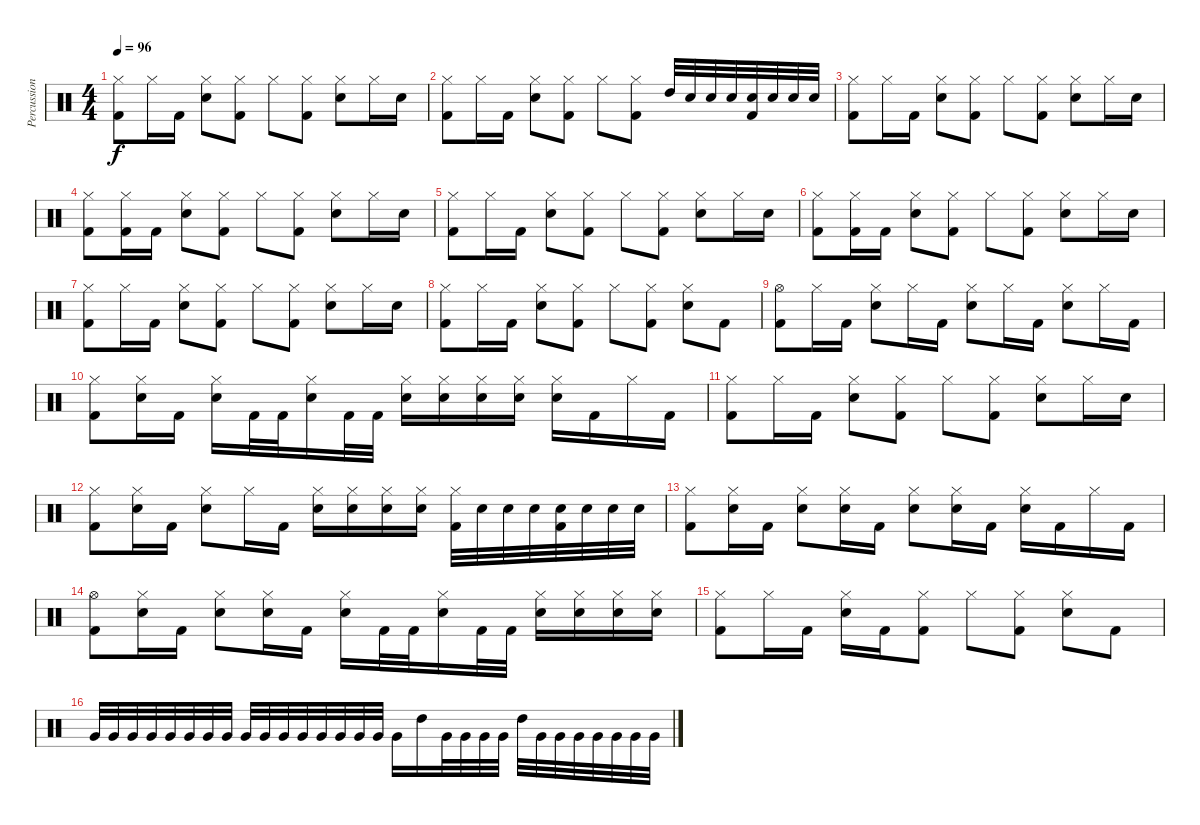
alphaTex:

\track ("Percussions" "Percussion") {instrument percussion}
\staff {score}
\articulation defaults
\ts (4 4)
\tempo 96
\clef neutral
\ks c
("Kick (hit) 2" "Hi-Hat (closed)").8{dy f} "Hi-Hat (closed)".16 "Kick (hit) 2".16 ("Hi-Hat (closed)" "Snare (hit) 2").8 ("Kick (hit) 2" "Hi-Hat (closed)").8 "Hi-Hat (closed)".8 ("Hi-Hat (closed)" "Kick (hit) 2").8 ("Hi-Hat (closed)" "Snare (hit) 2").8 "Hi-Hat (closed)".16 "Snare (hit) 2".16 |
("Hi-Hat (closed)" "Kick (hit) 2").8 "Hi-Hat (closed)".16 "Kick (hit) 2".16 ("Hi-Hat (closed)" "Snare (hit) 2").8 ("Hi-Hat (closed)" "Kick (hit) 2").8 "Hi-Hat (closed)".8 ("Hi-Hat (closed)" "Kick (hit) 2").8 "High Tom (hit)".32 "Snare (hit) 2".32 "Snare (hit) 2".32 "Snare (hit) 2".32 ("Snare (hit) 2" "Kick (hit) 2").32 "Snare (hit) 2".32 "Snare (hit) 2".32 "Snare (hit) 2".32 |
("Kick (hit) 2" "Hi-Hat (closed)").8 "Hi-Hat (closed)".16 "Kick (hit) 2".16 ("Hi-Hat (closed)" "Snare (hit) 2").8 ("Kick (hit) 2" "Hi-Hat (closed)").8 "Hi-Hat (closed)".8 ("Hi-Hat (closed)" "Kick (hit) 2").8 ("Hi-Hat (closed)" "Snare (hit) 2").8 "Hi-Hat (closed)".16 "Snare (hit) 2".16 |
("Kick (hit) 2" "Hi-Hat (closed)").8 ("Hi-Hat (closed)" "Kick (hit) 2").16 "Kick (hit) 2".16 ("Hi-Hat (closed)" "Snare (hit) 2").8 ("Kick (hit) 2" "Hi-Hat (closed)").8 "Hi-Hat (closed)".8 ("Hi-Hat (closed)" "Kick (hit) 2").8 ("Hi-Hat (closed)" "Snare (hit) 2").8 "Hi-Hat (closed)".16 "Snare (hit) 2".16 |
("Kick (hit) 2" "Hi-Hat (closed)").8 "Hi-Hat (closed)".16 "Kick (hit) 2".16 ("Hi-Hat (closed)" "Snare (hit) 2").8 ("Kick (hit) 2" "Hi-Hat (closed)").8 "Hi-Hat (closed)".8 ("Hi-Hat (closed)" "Kick (hit) 2").8 ("Hi-Hat (closed)" "Snare (hit) 2").8 "Hi-Hat (closed)".16 "Snare (hit) 2".16 |
("Kick (hit) 2" "Hi-Hat (closed)").8 ("Hi-Hat (closed)" "Kick (hit) 2").16 "Kick (hit) 2".16 ("Hi-Hat (closed)" "Snare (hit) 2").8 ("Kick (hit) 2" "Hi-Hat (closed)").8 "Hi-Hat (closed)".8 ("Hi-Hat (closed)" "Kick (hit) 2").8 ("Hi-Hat (closed)" "Snare (hit) 2").8 "Hi-Hat (closed)".16 "Snare (hit) 2".16 |
("Kick (hit) 2" "Hi-Hat (closed)").8 "Hi-Hat (closed)".16 "Kick (hit) 2".16 ("Hi-Hat (closed)" "Snare (hit) 2").8 ("Kick (hit) 2" "Hi-Hat (closed)").8 "Hi-Hat (closed)".8 ("Hi-Hat (closed)" "Kick (hit) 2").8 ("Hi-Hat (closed)" "Snare (hit) 2").8 "Hi-Hat (closed)".16 "Snare (hit) 2".16 |
("Hi-Hat (closed)" "Kick (hit) 2").8 "Hi-Hat (closed)".16 "Kick (hit) 2".16 ("Hi-Hat (closed)" "Snare (hit) 2").8 ("Hi-Hat (closed)" "Kick (hit) 2").8 "Hi-Hat (closed)".8 ("Hi-Hat (closed)" "Kick (hit) 2").8 ("Hi-Hat (closed)" "Snare (hit) 2").8 "Kick (hit) 2".8 |
("Hi-Hat (open)" "Kick (hit) 2").8 "Hi-Hat (closed)".16 "Kick (hit) 2".16 ("Hi-Hat (closed)" "Snare (hit) 2").8 "Hi-Hat (closed)".16 "Kick (hit) 2".16 ("Snare (hit) 2" "Hi-Hat (closed)").8 "Hi-Hat (closed)".16 "Kick (hit) 2".16 ("Hi-Hat (closed)" "Snare (hit) 2").8 "Hi-Hat (closed)".16 "Kick (hit) 2".16 |
("Hi-Hat (closed)" "Kick (hit) 2").8 ("Hi-Hat (closed)" "Snare (hit) 2").16 "Kick (hit) 2".16 ("Hi-Hat (closed)" "Snare (hit) 2").16 "Kick (hit) 2".32 "Kick (hit) 2".32 ("Hi-Hat (closed)" "Snare (hit) 2").16 "Kick (hit) 2".32 "Kick (hit) 2".32 ("Snare (hit) 2" "Hi-Hat (closed)").16 ("Hi-Hat (closed)" "Snare (hit) 2").16 ("Hi-Hat (closed)" "Snare (hit) 2").16 ("Hi-Hat (closed)" "Snare (hit) 2").16 ("Hi-Hat (closed)" "Snare (hit) 2").16 "Kick (hit) 2".16 "Hi-Hat (closed)".16 "Kick (hit) 2".16 |
("Kick (hit) 2" "Hi-Hat (closed)").8 "Hi-Hat (closed)".16 "Kick (hit) 2".16 ("Hi-Hat (closed)" "Snare (hit) 2").8 ("Kick (hit) 2" "Hi-Hat (closed)").8 "Hi-Hat (closed)".8 ("Hi-Hat (closed)" "Kick (hit) 2").8 ("Hi-Hat (closed)" "Snare (hit) 2").8 "Hi-Hat (closed)".16 "Snare (hit) 2".16 |
("Hi-Hat (closed)" "Kick (hit) 2").8 ("Hi-Hat (closed)" "Snare (hit) 2").16 "Kick (hit) 2".16 ("Hi-Hat (closed)" "Snare (hit) 2").8 "Hi-Hat (closed)".16 "Kick (hit) 2".16 ("Snare (hit) 2" "Hi-Hat (closed)").16 ("Hi-Hat (closed)" "Snare (hit) 2").16 ("Hi-Hat (closed)" "Snare (hit) 2").16 ("Hi-Hat (closed)" "Snare (hit) 2").16 ("Hi-Hat (closed)" "Kick (hit) 2").32 "Snare (hit) 2".32 "Snare (hit) 2".32 "Snare (hit) 2".32 ("Snare (hit) 2" "Kick (hit) 2").32 "Snare (hit) 2".32 "Snare (hit) 2".32 "Snare (hit) 2".32 |
("Hi-Hat (closed)" "Kick (hit) 2").8 ("Hi-Hat (closed)" "Snare (hit) 2").16 "Kick (hit) 2".16 ("Snare (hit) 2" "Hi-Hat (closed)").8 ("Hi-Hat (closed)" "Snare (hit) 2").16 "Kick (hit) 2".16 ("Hi-Hat (closed)" "Snare (hit) 2").8 ("Hi-Hat (closed)" "Snare (hit) 2").16 "Kick (hit) 2".16 ("Hi-Hat (closed)" "Snare (hit) 2").16 "Kick (hit) 2".16 "Hi-Hat (closed)".16 "Kick (hit) 2".16 |
("Hi-Hat (open)" "Kick (hit) 2").8 ("Snare (hit) 2" "Hi-Hat (closed)").16 "Kick (hit) 2".16 ("Hi-Hat (closed)" "Snare (hit) 2").8 ("Hi-Hat (closed)" "Snare (hit) 2").16 "Kick (hit) 2".16 ("Hi-Hat (closed)" "Snare (hit) 2").16 "Kick (hit) 2".32 "Kick (hit) 2".32 ("Hi-Hat (closed)" "Snare (hit) 2").16 "Kick (hit) 2".32 "Kick (hit) 2".32 ("Hi-Hat (closed)" "Snare (hit) 2").16 ("Snare (hit) 2" "Hi-Hat (closed)").16 ("Hi-Hat (closed)" "Snare (hit) 2").16 ("Hi-Hat (closed)" "Snare (hit) 2").16 |
("Hi-Hat (closed)" "Kick (hit) 2").8 "Hi-Hat (closed)".16 "Kick (hit) 2".16 ("Hi-Hat (closed)" "Snare (hit) 2").16 "Kick (hit) 2".16 ("Hi-Hat (closed)" "Kick (hit) 2").8 "Hi-Hat (closed)".8 ("Hi-Hat (closed)" "Kick (hit) 2").8 ("Hi-Hat (closed)" "Snare (hit) 2").8 "Kick (hit) 2".8 |
"Very Low Tom (hit)".32 "Very Low Tom (hit)".32 "Very Low Tom (hit)".32 "Very Low Tom (hit)".32 "Very Low Tom (hit)".32 "Very Low Tom (hit)".32 "Very Low Tom (hit)".32 "Very Low Tom (hit)".32 "Very Low Tom (hit)".32 "Very Low Tom (hit)".32 "Very Low Tom (hit)".32 "Very Low Tom (hit)".32 "Very Low Tom (hit)".32 "Very Low Tom (hit)".32 "Very Low Tom (hit)".32 "Very Low Tom (hit)".32 "Very Low Tom (hit)".16 "High Tom (hit)".16 "Very Low Tom (hit)".32 "Very Low Tom (hit)".32 "Very Low Tom (hit)".32 "Very Low Tom (hit)".32 "High Tom (hit)".32 "Very Low Tom (hit)".32 "Very Low Tom (hit)".32 "Very Low Tom (hit)".32 "Very Low Tom (hit)".32 "Very Low Tom (hit)".32 "Very Low Tom (hit)".32 "Very Low Tom (hit)".32
